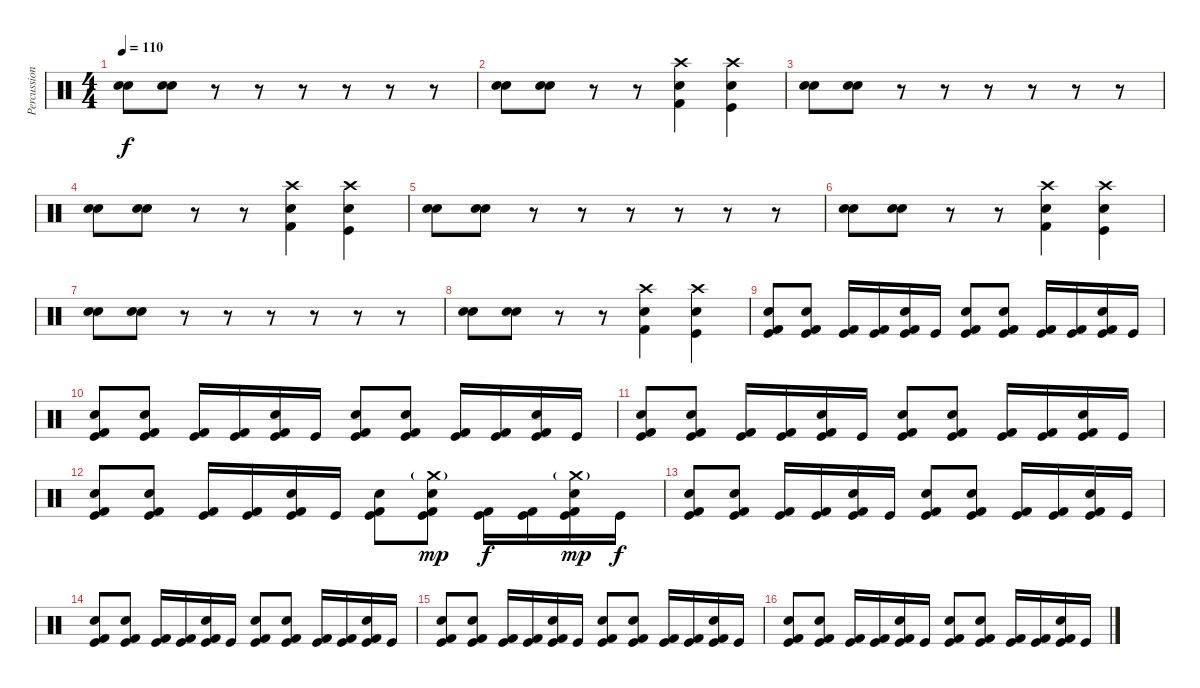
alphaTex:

\track ("Percussion" "Percussion") {instrument percussion}
\staff {score}
\articulation defaults
\ts (4 4)
\tempo 110
\clef neutral
\ks c
("Electric Snare (hit)" "Electric Snare (hit)").8{dy f} ("Electric Snare (hit)" "Electric Snare (hit)").8 r.8 r.8 r.8 r.8 r.8 r.8 |
("Electric Snare (hit)" "Electric Snare (hit)").8 ("Electric Snare (hit)" "Electric Snare (hit)").8 r.8 r.8 ("Crash high (hit)" "Snare (hit) 2" "Kick (hit) 2").4 ("Crash high (hit)" "Snare (hit) 2" "Kick (hit)").4 |
("Electric Snare (hit)" "Electric Snare (hit)").8 ("Electric Snare (hit)" "Electric Snare (hit)").8 r.8 r.8 r.8 r.8 r.8 r.8 |
("Electric Snare (hit)" "Electric Snare (hit)").8 ("Electric Snare (hit)" "Electric Snare (hit)").8 r.8 r.8 ("Crash high (hit)" "Snare (hit) 2" "Kick (hit) 2").4 ("Crash high (hit)" "Snare (hit) 2" "Kick (hit)").4 |
("Electric Snare (hit)" "Electric Snare (hit)").8 ("Electric Snare (hit)" "Electric Snare (hit)").8 r.8 r.8 r.8 r.8 r.8 r.8 |
("Electric Snare (hit)" "Electric Snare (hit)").8 ("Electric Snare (hit)" "Electric Snare (hit)").8 r.8 r.8 ("Crash high (hit)" "Snare (hit) 2" "Kick (hit) 2").4 ("Crash high (hit)" "Snare (hit) 2" "Kick (hit)").4 |
("Electric Snare (hit)" "Electric Snare (hit)").8 ("Electric Snare (hit)" "Electric Snare (hit)").8 r.8 r.8 r.8 r.8 r.8 r.8 |
("Electric Snare (hit)" "Electric Snare (hit)").8 ("Electric Snare (hit)" "Electric Snare (hit)").8 r.8 r.8 ("Crash high (hit)" "Snare (hit) 2" "Kick (hit) 2").4 ("Crash high (hit)" "Snare (hit) 2" "Kick (hit)").4 |
("Snare (hit) 2" "Kick (hit)" "Kick (hit) 2").8 ("Electric Snare (hit)" "Kick (hit)" "Kick (hit) 2").8 ("Kick (hit)" "Kick (hit) 2").16 ("Kick (hit)" "Kick (hit) 2").16 ("Electric Snare (hit)" "Kick (hit)" "Kick (hit) 2").16 "Kick (hit)".16 ("Snare (hit) 2" "Kick (hit)" "Kick (hit) 2").8 ("Electric Snare (hit)" "Kick (hit)" "Kick (hit) 2").8 ("Kick (hit)" "Kick (hit) 2").16 ("Kick (hit)" "Kick (hit) 2").16 ("Electric Snare (hit)" "Kick (hit)" "Kick (hit) 2").16 "Kick (hit)".16 |
("Snare (hit) 2" "Kick (hit)" "Kick (hit) 2").8 ("Electric Snare (hit)" "Kick (hit)" "Kick (hit) 2").8 ("Kick (hit)" "Kick (hit) 2").16 ("Kick (hit)" "Kick (hit) 2").16 ("Electric Snare (hit)" "Kick (hit)" "Kick (hit) 2").16 "Kick (hit)".16 ("Snare (hit) 2" "Kick (hit)" "Kick (hit) 2").8 ("Electric Snare (hit)" "Kick (hit)" "Kick (hit) 2").8 ("Kick (hit)" "Kick (hit) 2").16 ("Kick (hit)" "Kick (hit) 2").16 ("Electric Snare (hit)" "Kick (hit)" "Kick (hit) 2").16 "Kick (hit)".16 |
("Snare (hit) 2" "Kick (hit)" "Kick (hit) 2").8 ("Electric Snare (hit)" "Kick (hit)" "Kick (hit) 2").8 ("Kick (hit)" "Kick (hit) 2").16 ("Kick (hit)" "Kick (hit) 2").16 ("Electric Snare (hit)" "Kick (hit)" "Kick (hit) 2").16 "Kick (hit)".16 ("Snare (hit) 2" "Kick (hit)" "Kick (hit) 2").8 ("Electric Snare (hit)" "Kick (hit)" "Kick (hit) 2").8 ("Kick (hit)" "Kick (hit) 2").16 ("Kick (hit)" "Kick (hit) 2").16 ("Electric Snare (hit)" "Kick (hit)" "Kick (hit) 2").16 "Kick (hit)".16 |
("Snare (hit) 2" "Kick (hit)" "Kick (hit) 2").8 ("Electric Snare (hit)" "Kick (hit)" "Kick (hit) 2").8 ("Kick (hit)" "Kick (hit) 2").16 ("Kick (hit)" "Kick (hit) 2").16 ("Electric Snare (hit)" "Kick (hit)" "Kick (hit) 2").16 "Kick (hit)".16 ("Snare (hit) 2" "Kick (hit)" "Kick (hit) 2").8 ("Crash medium (hit)"{g} "Electric Snare (hit)" "Kick (hit)" "Kick (hit) 2").8{dy mp} ("Kick (hit)" "Kick (hit) 2").16{dy f} ("Kick (hit)" "Kick (hit) 2").16 ("Crash medium (hit)"{g} "Electric Snare (hit)" "Kick (hit)" "Kick (hit) 2").16{dy mp} "Kick (hit)".16{dy f} |
("Snare (hit) 2" "Kick (hit)" "Kick (hit) 2").8 ("Electric Snare (hit)" "Kick (hit)" "Kick (hit) 2").8 ("Kick (hit)" "Kick (hit) 2").16 ("Kick (hit)" "Kick (hit) 2").16 ("Electric Snare (hit)" "Kick (hit)" "Kick (hit) 2").16 "Kick (hit)".16 ("Snare (hit) 2" "Kick (hit)" "Kick (hit) 2").8 ("Electric Snare (hit)" "Kick (hit)" "Kick (hit) 2").8 ("Kick (hit)" "Kick (hit) 2").16 ("Kick (hit)" "Kick (hit) 2").16 ("Electric Snare (hit)" "Kick (hit)" "Kick (hit) 2").16 "Kick (hit)".16 |
("Snare (hit) 2" "Kick (hit)" "Kick (hit) 2").8 ("Electric Snare (hit)" "Kick (hit)" "Kick (hit) 2").8 ("Kick (hit)" "Kick (hit) 2").16 ("Kick (hit)" "Kick (hit) 2").16 ("Electric Snare (hit)" "Kick (hit)" "Kick (hit) 2").16 "Kick (hit)".16 ("Snare (hit) 2" "Kick (hit)" "Kick (hit) 2").8 ("Electric Snare (hit)" "Kick (hit)" "Kick (hit) 2").8 ("Kick (hit)" "Kick (hit) 2").16 ("Kick (hit)" "Kick (hit) 2").16 ("Electric Snare (hit)" "Kick (hit)" "Kick (hit) 2").16 "Kick (hit)".16 |
("Snare (hit) 2" "Kick (hit)" "Kick (hit) 2").8 ("Electric Snare (hit)" "Kick (hit)" "Kick (hit) 2").8 ("Kick (hit)" "Kick (hit) 2").16 ("Kick (hit)" "Kick (hit) 2").16 ("Electric Snare (hit)" "Kick (hit)" "Kick (hit) 2").16 "Kick (hit)".16 ("Snare (hit) 2" "Kick (hit)" "Kick (hit) 2").8 ("Electric Snare (hit)" "Kick (hit)" "Kick (hit) 2").8 ("Kick (hit)" "Kick (hit) 2").16 ("Kick (hit)" "Kick (hit) 2").16 ("Electric Snare (hit)" "Kick (hit)" "Kick (hit) 2").16 "Kick (hit)".16 |
("Snare (hit) 2" "Kick (hit)" "Kick (hit) 2").8 ("Electric Snare (hit)" "Kick (hit)" "Kick (hit) 2").8 ("Kick (hit)" "Kick (hit) 2").16 ("Kick (hit)" "Kick (hit) 2").16 ("Electric Snare (hit)" "Kick (hit)" "Kick (hit) 2").16 "Kick (hit)".16 ("Snare (hit) 2" "Kick (hit)" "Kick (hit) 2").8 ("Electric Snare (hit)" "Kick (hit)" "Kick (hit) 2").8 ("Kick (hit)" "Kick (hit) 2").16 ("Kick (hit)" "Kick (hit) 2").16 ("Electric Snare (hit)" "Kick (hit)" "Kick (hit) 2").16 "Kick (hit)".16
